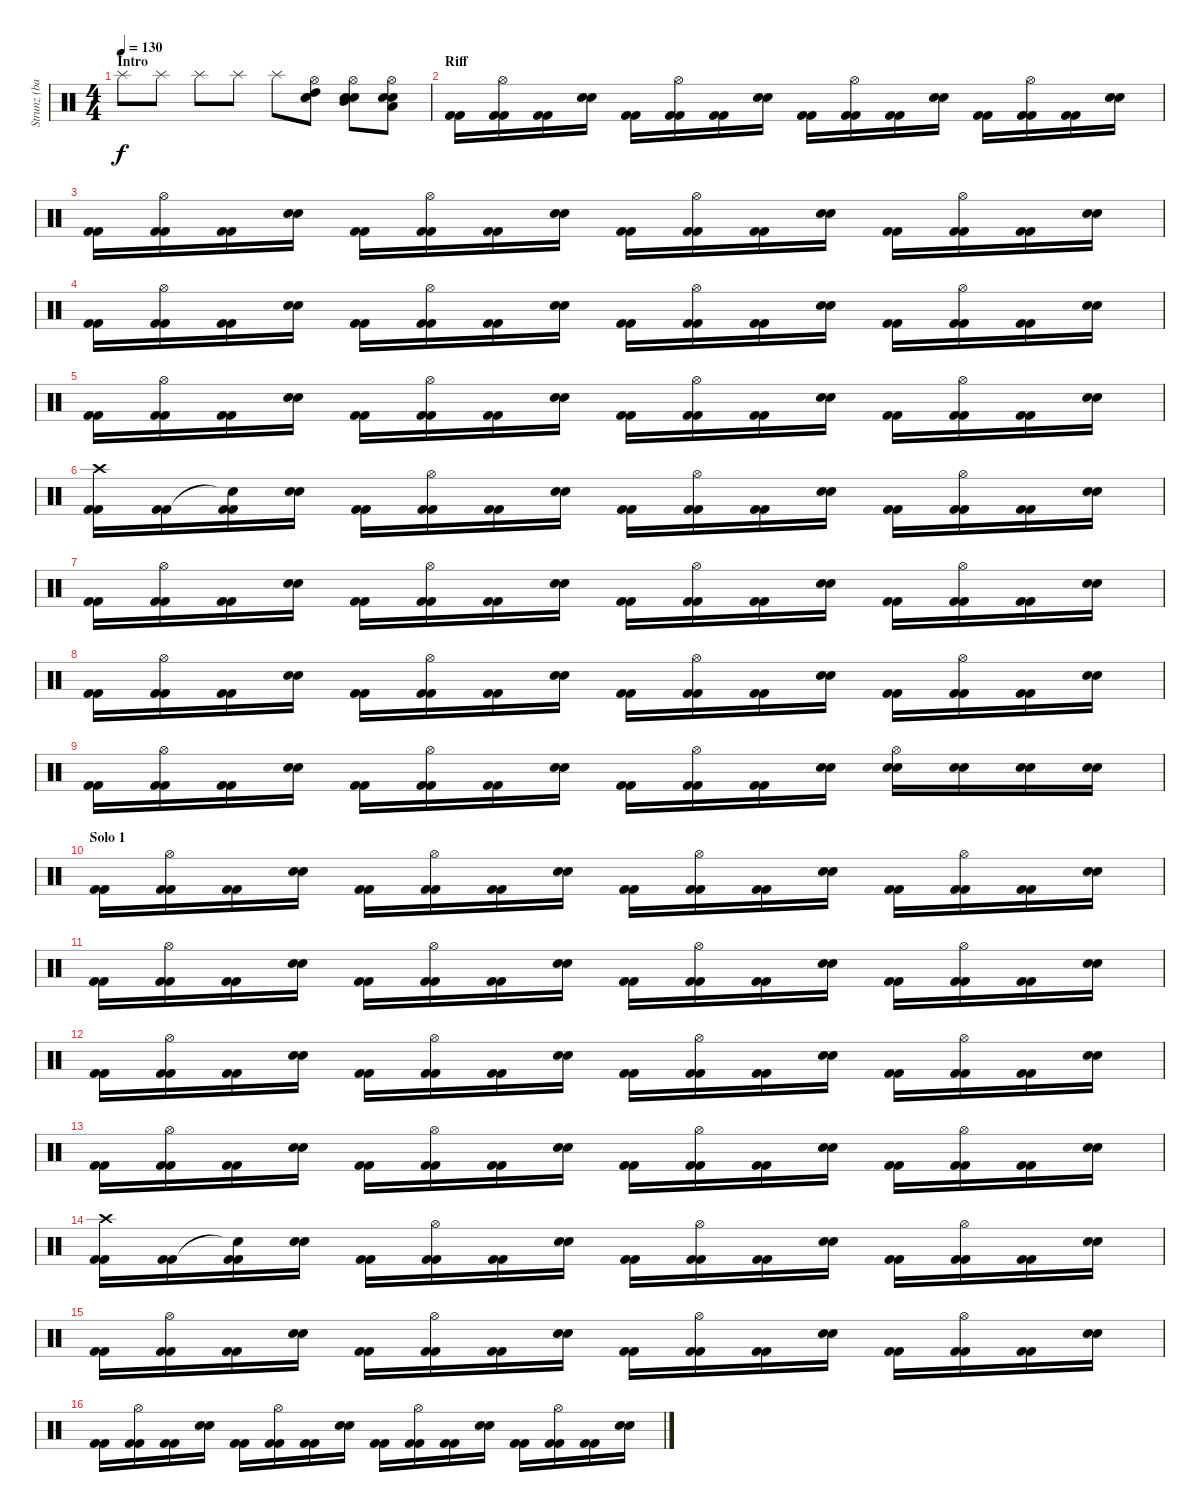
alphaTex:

\track ("Strunz (bateria)" "Strunz (ba") {instrument percussion}
\staff {score}
\articulation defaults
\ts (4 4)
\section ("" "Intro")
\tempo 130
\clef neutral
\ks c "Splash (hit)".8{dy f} "Splash (hit)".8 "Splash (hit)".8 "Splash (hit)".8 "Splash (hit)".8
("Hi-Hat (open)" "High Tom (hit)" "Snare (hit) 2" "Snare (hit) 2").8 ("Hi-Hat (open)" "Mid Tom (hit)" "Snare (hit) 2" "Snare (hit) 2").8 ("Hi-Hat (open)" "Low Tom (hit)" "Snare (hit) 2" "Snare (hit) 2").8 |
\section ("" "Riff")
("Kick (hit) 2" "Kick (hit) 2").16 ("Hi-Hat (open)" "Kick (hit) 2" "Kick (hit) 2").16 ("Kick (hit) 2" "Kick (hit) 2").16 ("Snare (hit) 2" "Snare (hit) 2").16 ("Kick (hit) 2" "Kick (hit) 2").16 ("Hi-Hat (open)" "Kick (hit) 2" "Kick (hit) 2").16 ("Kick (hit) 2" "Kick (hit) 2").16 ("Snare (hit) 2" "Snare (hit) 2").16 ("Kick (hit) 2" "Kick (hit) 2").16 ("Hi-Hat (open)" "Kick (hit) 2" "Kick (hit) 2").16 ("Kick (hit) 2" "Kick (hit) 2").16 ("Snare (hit) 2" "Snare (hit) 2").16 ("Kick (hit) 2" "Kick (hit) 2").16 ("Hi-Hat (open)" "Kick (hit) 2" "Kick (hit) 2").16 ("Kick (hit) 2" "Kick (hit) 2").16 ("Snare (hit) 2" "Snare (hit) 2").16 |
("Kick (hit) 2" "Kick (hit) 2").16 ("Hi-Hat (open)" "Kick (hit) 2" "Kick (hit) 2").16 ("Kick (hit) 2" "Kick (hit) 2").16 ("Snare (hit) 2" "Snare (hit) 2").16 ("Kick (hit) 2" "Kick (hit) 2").16 ("Hi-Hat (open)" "Kick (hit) 2" "Kick (hit) 2").16 ("Kick (hit) 2" "Kick (hit) 2").16 ("Snare (hit) 2" "Snare (hit) 2").16 ("Kick (hit) 2" "Kick (hit) 2").16 ("Hi-Hat (open)" "Kick (hit) 2" "Kick (hit) 2").16 ("Kick (hit) 2" "Kick (hit) 2").16 ("Snare (hit) 2" "Snare (hit) 2").16 ("Kick (hit) 2" "Kick (hit) 2").16 ("Hi-Hat (open)" "Kick (hit) 2" "Kick (hit) 2").16 ("Kick (hit) 2" "Kick (hit) 2").16 ("Snare (hit) 2" "Snare (hit) 2").16 |
("Kick (hit) 2" "Kick (hit) 2").16 ("Hi-Hat (open)" "Kick (hit) 2" "Kick (hit) 2").16 ("Kick (hit) 2" "Kick (hit) 2").16 ("Snare (hit) 2" "Snare (hit) 2").16 ("Kick (hit) 2" "Kick (hit) 2").16 ("Hi-Hat (open)" "Kick (hit) 2" "Kick (hit) 2").16 ("Kick (hit) 2" "Kick (hit) 2").16 ("Snare (hit) 2" "Snare (hit) 2").16 ("Kick (hit) 2" "Kick (hit) 2").16 ("Hi-Hat (open)" "Kick (hit) 2" "Kick (hit) 2").16 ("Kick (hit) 2" "Kick (hit) 2").16 ("Snare (hit) 2" "Snare (hit) 2").16 ("Kick (hit) 2" "Kick (hit) 2").16 ("Hi-Hat (open)" "Kick (hit) 2" "Kick (hit) 2").16 ("Kick (hit) 2" "Kick (hit) 2").16 ("Snare (hit) 2" "Snare (hit) 2").16 |
("Kick (hit) 2" "Kick (hit) 2").16 ("Hi-Hat (open)" "Kick (hit) 2" "Kick (hit) 2").16 ("Kick (hit) 2" "Kick (hit) 2").16 ("Snare (hit) 2" "Snare (hit) 2").16 ("Kick (hit) 2" "Kick (hit) 2").16 ("Hi-Hat (open)" "Kick (hit) 2" "Kick (hit) 2").16 ("Kick (hit) 2" "Kick (hit) 2").16 ("Snare (hit) 2" "Snare (hit) 2").16 ("Kick (hit) 2" "Kick (hit) 2").16 ("Hi-Hat (open)" "Kick (hit) 2" "Kick (hit) 2").16 ("Kick (hit) 2" "Kick (hit) 2").16 ("Snare (hit) 2" "Snare (hit) 2").16 ("Kick (hit) 2" "Kick (hit) 2").16 ("Hi-Hat (open)" "Kick (hit) 2" "Kick (hit) 2").16 ("Kick (hit) 2" "Kick (hit) 2").16 ("Snare (hit) 2" "Snare (hit) 2").16 |
("Crash high (hit)" "Kick (hit) 2" "Kick (hit) 2").16 ("Kick (hit) 2" "Kick (hit) 2").16 ("Snare (hit)"{t} "Kick (hit) 2" "Kick (hit) 2").16 ("Snare (hit) 2" "Snare (hit) 2").16 ("Kick (hit) 2" "Kick (hit) 2").16 ("Hi-Hat (open)" "Kick (hit) 2" "Kick (hit) 2").16 ("Kick (hit) 2" "Kick (hit) 2").16 ("Snare (hit) 2" "Snare (hit) 2").16 ("Kick (hit) 2" "Kick (hit) 2").16 ("Hi-Hat (open)" "Kick (hit) 2" "Kick (hit) 2").16 ("Kick (hit) 2" "Kick (hit) 2").16 ("Snare (hit) 2" "Snare (hit) 2").16 ("Kick (hit) 2" "Kick (hit) 2").16 ("Hi-Hat (open)" "Kick (hit) 2" "Kick (hit) 2").16 ("Kick (hit) 2" "Kick (hit) 2").16 ("Snare (hit) 2" "Snare (hit) 2").16 |
("Kick (hit) 2" "Kick (hit) 2").16 ("Hi-Hat (open)" "Kick (hit) 2" "Kick (hit) 2").16 ("Kick (hit) 2" "Kick (hit) 2").16 ("Snare (hit) 2" "Snare (hit) 2").16 ("Kick (hit) 2" "Kick (hit) 2").16 ("Hi-Hat (open)" "Kick (hit) 2" "Kick (hit) 2").16 ("Kick (hit) 2" "Kick (hit) 2").16 ("Snare (hit) 2" "Snare (hit) 2").16 ("Kick (hit) 2" "Kick (hit) 2").16 ("Hi-Hat (open)" "Kick (hit) 2" "Kick (hit) 2").16 ("Kick (hit) 2" "Kick (hit) 2").16 ("Snare (hit) 2" "Snare (hit) 2").16 ("Kick (hit) 2" "Kick (hit) 2").16 ("Hi-Hat (open)" "Kick (hit) 2" "Kick (hit) 2").16 ("Kick (hit) 2" "Kick (hit) 2").16 ("Snare (hit) 2" "Snare (hit) 2").16 |
("Kick (hit) 2" "Kick (hit) 2").16 ("Hi-Hat (open)" "Kick (hit) 2" "Kick (hit) 2").16 ("Kick (hit) 2" "Kick (hit) 2").16 ("Snare (hit) 2" "Snare (hit) 2").16 ("Kick (hit) 2" "Kick (hit) 2").16 ("Hi-Hat (open)" "Kick (hit) 2" "Kick (hit) 2").16 ("Kick (hit) 2" "Kick (hit) 2").16 ("Snare (hit) 2" "Snare (hit) 2").16 ("Kick (hit) 2" "Kick (hit) 2").16 ("Hi-Hat (open)" "Kick (hit) 2" "Kick (hit) 2").16 ("Kick (hit) 2" "Kick (hit) 2").16 ("Snare (hit) 2" "Snare (hit) 2").16 ("Kick (hit) 2" "Kick (hit) 2").16 ("Hi-Hat (open)" "Kick (hit) 2" "Kick (hit) 2").16 ("Kick (hit) 2" "Kick (hit) 2").16 ("Snare (hit) 2" "Snare (hit) 2").16 |
("Kick (hit) 2" "Kick (hit) 2").16 ("Hi-Hat (open)" "Kick (hit) 2" "Kick (hit) 2").16 ("Kick (hit) 2" "Kick (hit) 2").16 ("Snare (hit) 2" "Snare (hit) 2").16 ("Kick (hit) 2" "Kick (hit) 2").16 ("Hi-Hat (open)" "Kick (hit) 2" "Kick (hit) 2").16 ("Kick (hit) 2" "Kick (hit) 2").16 ("Snare (hit) 2" "Snare (hit) 2").16 ("Kick (hit) 2" "Kick (hit) 2").16 ("Hi-Hat (open)" "Kick (hit) 2" "Kick (hit) 2").16 ("Kick (hit) 2" "Kick (hit) 2").16 ("Snare (hit) 2" "Snare (hit) 2").16 ("Hi-Hat (open)" "Snare (hit) 2" "Snare (hit) 2").16 ("Snare (hit) 2" "Snare (hit) 2").16 ("Snare (hit) 2" "Snare (hit) 2").16 ("Snare (hit) 2" "Snare (hit) 2").16 |
\section ("" "Solo 1")
("Kick (hit) 2" "Kick (hit) 2").16 ("Hi-Hat (open)" "Kick (hit) 2" "Kick (hit) 2").16 ("Kick (hit) 2" "Kick (hit) 2").16 ("Snare (hit) 2" "Snare (hit) 2").16 ("Kick (hit) 2" "Kick (hit) 2").16 ("Hi-Hat (open)" "Kick (hit) 2" "Kick (hit) 2").16 ("Kick (hit) 2" "Kick (hit) 2").16 ("Snare (hit) 2" "Snare (hit) 2").16 ("Kick (hit) 2" "Kick (hit) 2").16 ("Hi-Hat (open)" "Kick (hit) 2" "Kick (hit) 2").16 ("Kick (hit) 2" "Kick (hit) 2").16 ("Snare (hit) 2" "Snare (hit) 2").16 ("Kick (hit) 2" "Kick (hit) 2").16 ("Hi-Hat (open)" "Kick (hit) 2" "Kick (hit) 2").16 ("Kick (hit) 2" "Kick (hit) 2").16 ("Snare (hit) 2" "Snare (hit) 2").16 |
("Kick (hit) 2" "Kick (hit) 2").16 ("Hi-Hat (open)" "Kick (hit) 2" "Kick (hit) 2").16 ("Kick (hit) 2" "Kick (hit) 2").16 ("Snare (hit) 2" "Snare (hit) 2").16 ("Kick (hit) 2" "Kick (hit) 2").16 ("Hi-Hat (open)" "Kick (hit) 2" "Kick (hit) 2").16 ("Kick (hit) 2" "Kick (hit) 2").16 ("Snare (hit) 2" "Snare (hit) 2").16 ("Kick (hit) 2" "Kick (hit) 2").16 ("Hi-Hat (open)" "Kick (hit) 2" "Kick (hit) 2").16 ("Kick (hit) 2" "Kick (hit) 2").16 ("Snare (hit) 2" "Snare (hit) 2").16 ("Kick (hit) 2" "Kick (hit) 2").16 ("Hi-Hat (open)" "Kick (hit) 2" "Kick (hit) 2").16 ("Kick (hit) 2" "Kick (hit) 2").16 ("Snare (hit) 2" "Snare (hit) 2").16 |
("Kick (hit) 2" "Kick (hit) 2").16 ("Hi-Hat (open)" "Kick (hit) 2" "Kick (hit) 2").16 ("Kick (hit) 2" "Kick (hit) 2").16 ("Snare (hit) 2" "Snare (hit) 2").16 ("Kick (hit) 2" "Kick (hit) 2").16 ("Hi-Hat (open)" "Kick (hit) 2" "Kick (hit) 2").16 ("Kick (hit) 2" "Kick (hit) 2").16 ("Snare (hit) 2" "Snare (hit) 2").16 ("Kick (hit) 2" "Kick (hit) 2").16 ("Hi-Hat (open)" "Kick (hit) 2" "Kick (hit) 2").16 ("Kick (hit) 2" "Kick (hit) 2").16 ("Snare (hit) 2" "Snare (hit) 2").16 ("Kick (hit) 2" "Kick (hit) 2").16 ("Hi-Hat (open)" "Kick (hit) 2" "Kick (hit) 2").16 ("Kick (hit) 2" "Kick (hit) 2").16 ("Snare (hit) 2" "Snare (hit) 2").16 |
("Kick (hit) 2" "Kick (hit) 2").16 ("Hi-Hat (open)" "Kick (hit) 2" "Kick (hit) 2").16 ("Kick (hit) 2" "Kick (hit) 2").16 ("Snare (hit) 2" "Snare (hit) 2").16 ("Kick (hit) 2" "Kick (hit) 2").16 ("Hi-Hat (open)" "Kick (hit) 2" "Kick (hit) 2").16 ("Kick (hit) 2" "Kick (hit) 2").16 ("Snare (hit) 2" "Snare (hit) 2").16 ("Kick (hit) 2" "Kick (hit) 2").16 ("Hi-Hat (open)" "Kick (hit) 2" "Kick (hit) 2").16 ("Kick (hit) 2" "Kick (hit) 2").16 ("Snare (hit) 2" "Snare (hit) 2").16 ("Kick (hit) 2" "Kick (hit) 2").16 ("Hi-Hat (open)" "Kick (hit) 2" "Kick (hit) 2").16 ("Kick (hit) 2" "Kick (hit) 2").16 ("Snare (hit) 2" "Snare (hit) 2").16 |
("Crash high (hit)" "Kick (hit) 2" "Kick (hit) 2").16 ("Kick (hit) 2" "Kick (hit) 2").16 ("Snare (hit)"{t} "Kick (hit) 2" "Kick (hit) 2").16 ("Snare (hit) 2" "Snare (hit) 2").16 ("Kick (hit) 2" "Kick (hit) 2").16 ("Hi-Hat (open)" "Kick (hit) 2" "Kick (hit) 2").16 ("Kick (hit) 2" "Kick (hit) 2").16 ("Snare (hit) 2" "Snare (hit) 2").16 ("Kick (hit) 2" "Kick (hit) 2").16 ("Hi-Hat (open)" "Kick (hit) 2" "Kick (hit) 2").16 ("Kick (hit) 2" "Kick (hit) 2").16 ("Snare (hit) 2" "Snare (hit) 2").16 ("Kick (hit) 2" "Kick (hit) 2").16 ("Hi-Hat (open)" "Kick (hit) 2" "Kick (hit) 2").16 ("Kick (hit) 2" "Kick (hit) 2").16 ("Snare (hit) 2" "Snare (hit) 2").16 |
("Kick (hit) 2" "Kick (hit) 2").16 ("Hi-Hat (open)" "Kick (hit) 2" "Kick (hit) 2").16 ("Kick (hit) 2" "Kick (hit) 2").16 ("Snare (hit) 2" "Snare (hit) 2").16 ("Kick (hit) 2" "Kick (hit) 2").16 ("Hi-Hat (open)" "Kick (hit) 2" "Kick (hit) 2").16 ("Kick (hit) 2" "Kick (hit) 2").16 ("Snare (hit) 2" "Snare (hit) 2").16 ("Kick (hit) 2" "Kick (hit) 2").16 ("Hi-Hat (open)" "Kick (hit) 2" "Kick (hit) 2").16 ("Kick (hit) 2" "Kick (hit) 2").16 ("Snare (hit) 2" "Snare (hit) 2").16 ("Kick (hit) 2" "Kick (hit) 2").16 ("Hi-Hat (open)" "Kick (hit) 2" "Kick (hit) 2").16 ("Kick (hit) 2" "Kick (hit) 2").16 ("Snare (hit) 2" "Snare (hit) 2").16 |
("Kick (hit) 2" "Kick (hit) 2").16 ("Hi-Hat (open)" "Kick (hit) 2" "Kick (hit) 2").16 ("Kick (hit) 2" "Kick (hit) 2").16 ("Snare (hit) 2" "Snare (hit) 2").16 ("Kick (hit) 2" "Kick (hit) 2").16 ("Hi-Hat (open)" "Kick (hit) 2" "Kick (hit) 2").16 ("Kick (hit) 2" "Kick (hit) 2").16 ("Snare (hit) 2" "Snare (hit) 2").16 ("Kick (hit) 2" "Kick (hit) 2").16 ("Hi-Hat (open)" "Kick (hit) 2" "Kick (hit) 2").16 ("Kick (hit) 2" "Kick (hit) 2").16 ("Snare (hit) 2" "Snare (hit) 2").16 ("Kick (hit) 2" "Kick (hit) 2").16 ("Hi-Hat (open)" "Kick (hit) 2" "Kick (hit) 2").16 ("Kick (hit) 2" "Kick (hit) 2").16 ("Snare (hit) 2" "Snare (hit) 2").16
